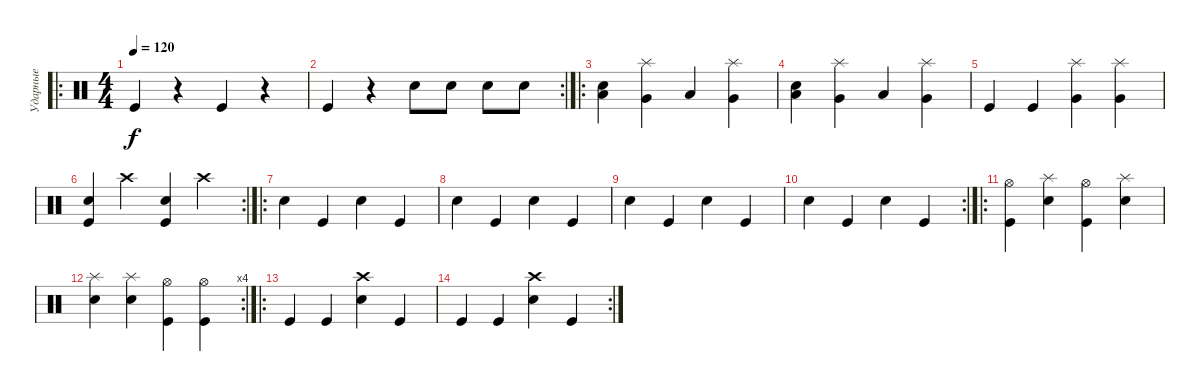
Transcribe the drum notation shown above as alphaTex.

\track ("Ударные" "Ударные") {instrument percussion}
\staff {score}
\articulation defaults
\ro
\ts (4 4)
\tempo 120
\clef neutral
\ks c "Kick (hit)".4{dy f}
r.4 "Kick (hit)".4 r.4 |
\rc 2 "Kick (hit)".4
r.4 "Electric Snare (hit)".8 "Electric Snare (hit)".8 "Electric Snare (hit)".8 "Electric Snare (hit)".8 |
\ro
("Low Tom (hit)" "Electric Snare (hit)").4 ("Very Low Tom (hit)" "Splash (hit)").4 "Low Tom (hit)".4 ("Very Low Tom (hit)" "Splash (hit)").4 |
("Low Tom (hit)" "Electric Snare (hit)").4 ("Very Low Tom (hit)" "Splash (hit)").4 "Low Tom (hit)".4 ("Very Low Tom (hit)" "Splash (hit)").4 |
"Kick (hit)".4 "Kick (hit)".4 ("Very Low Tom (hit)" "Splash (hit)").4 ("Splash (hit)" "Very Low Tom (hit)").4 |
\rc 2
("Kick (hit)" "Electric Snare (hit)").4 "Crash high (hit)".4 ("Kick (hit)" "Electric Snare (hit)").4 "Crash high (hit)".4 |
\ro "Snare (hit) 2".4 "Kick (hit)".4 "Snare (hit) 2".4 "Kick (hit)".4
|
"Snare (hit) 2".4 "Kick (hit)".4 "Snare (hit) 2".4 "Kick (hit)".4 |
"Snare (hit) 2".4 "Kick (hit)".4 "Snare (hit) 2".4 "Kick (hit)".4 |
\rc 2 "Snare (hit) 2".4 "Kick (hit)".4 "Snare (hit) 2".4 "Kick (hit)".4
|
\ro
("Kick (hit)" "Hi-Hat (open)").4 ("Snare (hit) 2" "Splash (hit)").4 ("Kick (hit)" "Hi-Hat (open)").4 ("Snare (hit) 2" "Splash (hit)").4 |
\rc 4
("Snare (hit) 2" "Splash (hit)").4 ("Snare (hit) 2" "Splash (hit)").4 ("Kick (hit)" "Hi-Hat (open)").4 ("Kick (hit)" "Hi-Hat (open)").4 |
\ro "Kick (hit)".4 "Kick (hit)".4
("Crash high (hit)" "Electric Snare (hit)").4 "Kick (hit)".4 |
\rc 2 "Kick (hit)".4 "Kick (hit)".4
("Crash high (hit)" "Electric Snare (hit)").4 "Kick (hit)".4
